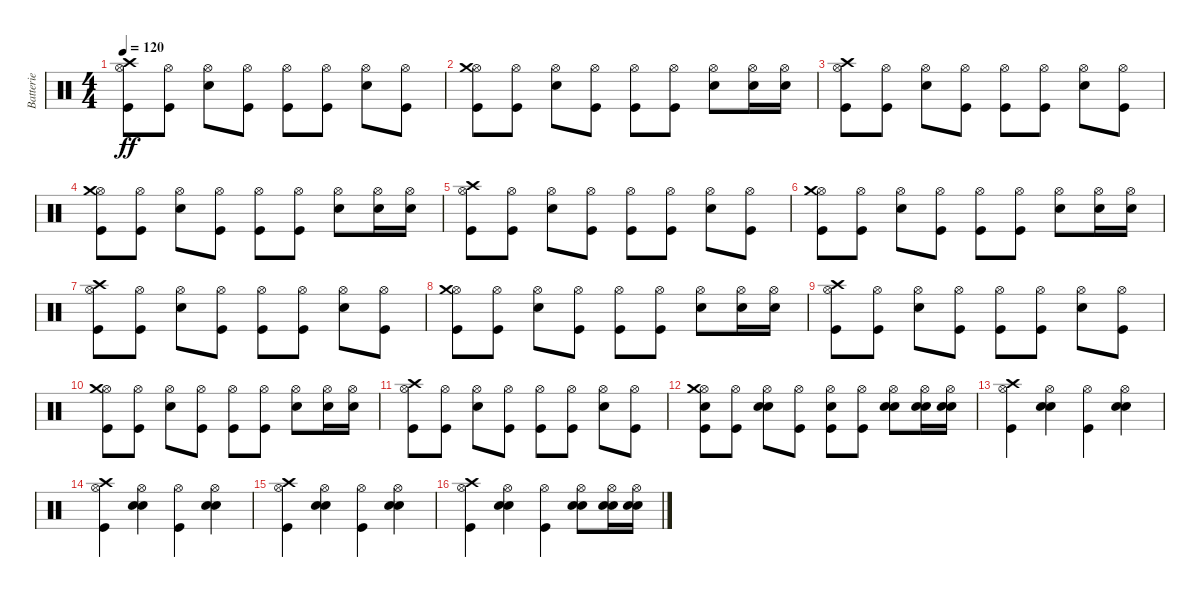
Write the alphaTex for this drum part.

\track ("Batterie" "Batterie") {instrument percussion}
\staff {score}
\articulation defaults
\ts (4 4)
\tempo 120
\clef neutral
\ks c
("Kick (hit)" "Hi-Hat (open)" "Crash high (hit)").8{dy ff} ("Kick (hit)" "Hi-Hat (open)").8 ("Electric Snare (hit)" "Hi-Hat (open)").8 ("Kick (hit)" "Hi-Hat (open)").8 ("Kick (hit)" "Hi-Hat (open)").8 ("Kick (hit)" "Hi-Hat (open)").8 ("Electric Snare (hit)" "Hi-Hat (open)").8 ("Kick (hit)" "Hi-Hat (open)").8 |
("Kick (hit)" "Hi-Hat (open)" "Crash medium (hit)").8 ("Kick (hit)" "Hi-Hat (open)").8 ("Electric Snare (hit)" "Hi-Hat (open)").8 ("Kick (hit)" "Hi-Hat (open)").8 ("Kick (hit)" "Hi-Hat (open)").8 ("Kick (hit)" "Hi-Hat (open)").8 ("Electric Snare (hit)" "Hi-Hat (open)").8 ("Electric Snare (hit)" "Hi-Hat (open)").16 ("Electric Snare (hit)" "Hi-Hat (open)").16 |
("Kick (hit)" "Hi-Hat (open)" "Crash high (hit)").8 ("Kick (hit)" "Hi-Hat (open)").8 ("Electric Snare (hit)" "Hi-Hat (open)").8 ("Kick (hit)" "Hi-Hat (open)").8 ("Kick (hit)" "Hi-Hat (open)").8 ("Kick (hit)" "Hi-Hat (open)").8 ("Electric Snare (hit)" "Hi-Hat (open)").8 ("Kick (hit)" "Hi-Hat (open)").8 |
("Kick (hit)" "Hi-Hat (open)" "Crash medium (hit)").8 ("Kick (hit)" "Hi-Hat (open)").8 ("Electric Snare (hit)" "Hi-Hat (open)").8 ("Kick (hit)" "Hi-Hat (open)").8 ("Kick (hit)" "Hi-Hat (open)").8 ("Kick (hit)" "Hi-Hat (open)").8 ("Electric Snare (hit)" "Hi-Hat (open)").8 ("Electric Snare (hit)" "Hi-Hat (open)").16 ("Electric Snare (hit)" "Hi-Hat (open)").16 |
("Kick (hit)" "Hi-Hat (open)" "Crash high (hit)").8 ("Kick (hit)" "Hi-Hat (open)").8 ("Electric Snare (hit)" "Hi-Hat (open)").8 ("Kick (hit)" "Hi-Hat (open)").8 ("Kick (hit)" "Hi-Hat (open)").8 ("Kick (hit)" "Hi-Hat (open)").8 ("Electric Snare (hit)" "Hi-Hat (open)").8 ("Kick (hit)" "Hi-Hat (open)").8 |
("Kick (hit)" "Hi-Hat (open)" "Crash medium (hit)").8 ("Kick (hit)" "Hi-Hat (open)").8 ("Electric Snare (hit)" "Hi-Hat (open)").8 ("Kick (hit)" "Hi-Hat (open)").8 ("Kick (hit)" "Hi-Hat (open)").8 ("Kick (hit)" "Hi-Hat (open)").8 ("Electric Snare (hit)" "Hi-Hat (open)").8 ("Electric Snare (hit)" "Hi-Hat (open)").16 ("Electric Snare (hit)" "Hi-Hat (open)").16 |
("Kick (hit)" "Hi-Hat (open)" "Crash high (hit)").8 ("Kick (hit)" "Hi-Hat (open)").8 ("Electric Snare (hit)" "Hi-Hat (open)").8 ("Kick (hit)" "Hi-Hat (open)").8 ("Kick (hit)" "Hi-Hat (open)").8 ("Kick (hit)" "Hi-Hat (open)").8 ("Electric Snare (hit)" "Hi-Hat (open)").8 ("Kick (hit)" "Hi-Hat (open)").8 |
("Kick (hit)" "Hi-Hat (open)" "Crash medium (hit)").8 ("Kick (hit)" "Hi-Hat (open)").8 ("Electric Snare (hit)" "Hi-Hat (open)").8 ("Kick (hit)" "Hi-Hat (open)").8 ("Kick (hit)" "Hi-Hat (open)").8 ("Kick (hit)" "Hi-Hat (open)").8 ("Electric Snare (hit)" "Hi-Hat (open)").8 ("Electric Snare (hit)" "Hi-Hat (open)").16 ("Electric Snare (hit)" "Hi-Hat (open)").16 |
("Kick (hit)" "Hi-Hat (open)" "Crash high (hit)").8 ("Kick (hit)" "Hi-Hat (open)").8 ("Electric Snare (hit)" "Hi-Hat (open)").8 ("Kick (hit)" "Hi-Hat (open)").8 ("Kick (hit)" "Hi-Hat (open)").8 ("Kick (hit)" "Hi-Hat (open)").8 ("Electric Snare (hit)" "Hi-Hat (open)").8 ("Kick (hit)" "Hi-Hat (open)").8 |
("Kick (hit)" "Hi-Hat (open)" "Crash medium (hit)").8 ("Kick (hit)" "Hi-Hat (open)").8 ("Electric Snare (hit)" "Hi-Hat (open)").8 ("Kick (hit)" "Hi-Hat (open)").8 ("Kick (hit)" "Hi-Hat (open)").8 ("Kick (hit)" "Hi-Hat (open)").8 ("Electric Snare (hit)" "Hi-Hat (open)").8 ("Electric Snare (hit)" "Hi-Hat (open)").16 ("Electric Snare (hit)" "Hi-Hat (open)").16 |
("Kick (hit)" "Hi-Hat (open)" "Crash high (hit)").8 ("Kick (hit)" "Hi-Hat (open)").8 ("Electric Snare (hit)" "Hi-Hat (open)").8 ("Kick (hit)" "Hi-Hat (open)").8 ("Kick (hit)" "Hi-Hat (open)").8 ("Kick (hit)" "Hi-Hat (open)").8 ("Electric Snare (hit)" "Hi-Hat (open)").8 ("Kick (hit)" "Hi-Hat (open)").8 |
("Kick (hit)" "Hi-Hat (open)" "Crash medium (hit)" "Electric Snare (hit)").8 ("Kick (hit)" "Hi-Hat (open)").8 ("Electric Snare (hit)" "Hi-Hat (open)" "Electric Snare (hit)").8 ("Kick (hit)" "Hi-Hat (open)").8 ("Kick (hit)" "Hi-Hat (open)" "Electric Snare (hit)").8 ("Kick (hit)" "Hi-Hat (open)").8 ("Electric Snare (hit)" "Hi-Hat (open)" "Electric Snare (hit)").8 ("Electric Snare (hit)" "Hi-Hat (open)" "Electric Snare (hit)").16 ("Electric Snare (hit)" "Hi-Hat (open)" "Electric Snare (hit)").16 |
("Kick (hit)" "Hi-Hat (open)" "Crash high (hit)").4 ("Electric Snare (hit)" "Electric Snare (hit)" "Hi-Hat (open)").4 ("Kick (hit)" "Hi-Hat (open)").4 ("Electric Snare (hit)" "Electric Snare (hit)" "Hi-Hat (open)").4 |
("Kick (hit)" "Hi-Hat (open)" "Crash high (hit)").4 ("Electric Snare (hit)" "Electric Snare (hit)" "Hi-Hat (open)").4 ("Kick (hit)" "Hi-Hat (open)").4 ("Electric Snare (hit)" "Electric Snare (hit)" "Hi-Hat (open)").4 |
("Kick (hit)" "Hi-Hat (open)" "Crash high (hit)").4 ("Electric Snare (hit)" "Electric Snare (hit)" "Hi-Hat (open)").4 ("Kick (hit)" "Hi-Hat (open)").4 ("Electric Snare (hit)" "Electric Snare (hit)" "Hi-Hat (open)").4 |
("Kick (hit)" "Hi-Hat (open)" "Crash high (hit)").4 ("Electric Snare (hit)" "Electric Snare (hit)" "Hi-Hat (open)").4 ("Kick (hit)" "Hi-Hat (open)").4 ("Electric Snare (hit)" "Electric Snare (hit)" "Hi-Hat (open)").8 ("Electric Snare (hit)" "Electric Snare (hit)" "Hi-Hat (open)").16 ("Electric Snare (hit)" "Electric Snare (hit)" "Hi-Hat (open)").16
